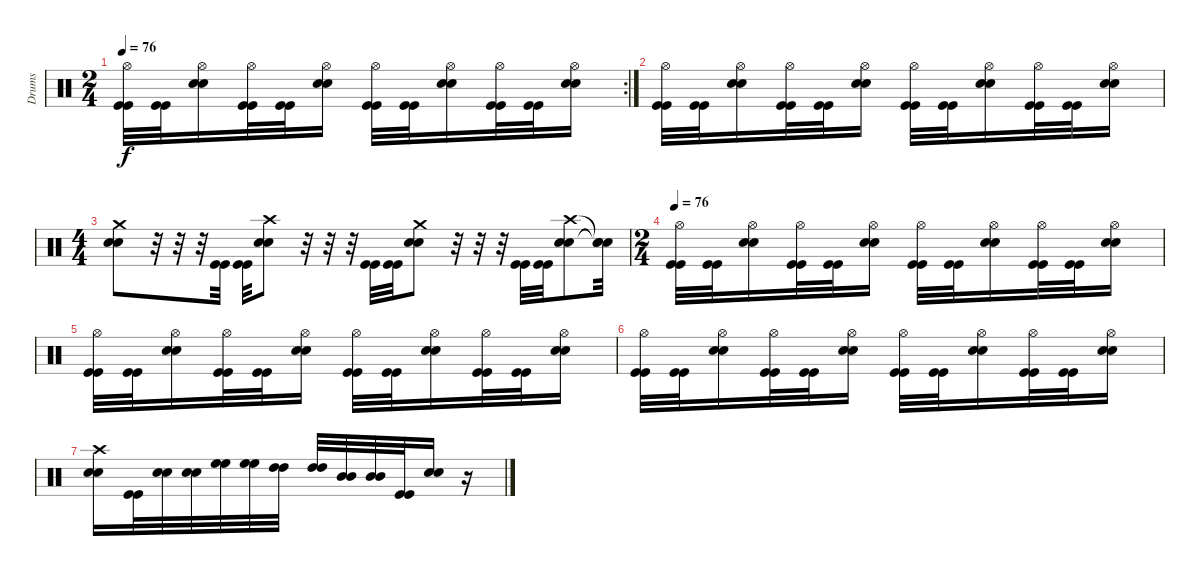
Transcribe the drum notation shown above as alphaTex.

\track ("Drums" "Drums") {instrument percussion}
\staff {score}
\articulation defaults
\rc 2
\ts (2 4)
\tempo 76
\clef neutral
\ks c
("Hi-Hat (open)" "Kick (hit)" "Kick (hit)").32{dy f} ("Kick (hit)" "Kick (hit)").32 ("Hi-Hat (open)" "Snare (hit) 2" "Snare (hit) 2").16 ("Hi-Hat (open)" "Kick (hit)" "Kick (hit)").32 ("Kick (hit)" "Kick (hit)").32 ("Hi-Hat (open)" "Snare (hit) 2" "Snare (hit) 2").16 ("Hi-Hat (open)" "Kick (hit)" "Kick (hit)").32 ("Kick (hit)" "Kick (hit)").32 ("Hi-Hat (open)" "Snare (hit) 2" "Snare (hit) 2").16 ("Hi-Hat (open)" "Kick (hit)" "Kick (hit)").32 ("Kick (hit)" "Kick (hit)").32 ("Hi-Hat (open)" "Snare (hit) 2" "Snare (hit) 2").16 |
("Hi-Hat (open)" "Kick (hit)" "Kick (hit)").32 ("Kick (hit)" "Kick (hit)").32 ("Hi-Hat (open)" "Snare (hit) 2" "Snare (hit) 2").16 ("Hi-Hat (open)" "Kick (hit)" "Kick (hit)").32 ("Kick (hit)" "Kick (hit)").32 ("Hi-Hat (open)" "Snare (hit) 2" "Snare (hit) 2").16 ("Hi-Hat (open)" "Kick (hit)" "Kick (hit)").32 ("Kick (hit)" "Kick (hit)").32 ("Hi-Hat (open)" "Snare (hit) 2" "Snare (hit) 2").16 ("Hi-Hat (open)" "Kick (hit)" "Kick (hit)").32 ("Kick (hit)" "Kick (hit)").32 ("Hi-Hat (open)" "Snare (hit) 2" "Snare (hit) 2").16 |
\ts (4 4)
("Crash medium (hit)" "Snare (hit) 2" "Snare (hit) 2").8 r.32 r.32 r.32 ("Kick (hit)" "Kick (hit)").32 ("Kick (hit)" "Kick (hit)").32 ("Crash high (hit)" "Snare (hit) 2" "Snare (hit) 2").8 r.32 r.32 r.32 ("Kick (hit)" "Kick (hit)").32 ("Kick (hit)" "Kick (hit)").32 ("Crash medium (hit)" "Snare (hit) 2" "Snare (hit) 2").8 r.32 r.32 r.32 ("Kick (hit)" "Kick (hit)").32 ("Kick (hit)" "Kick (hit)").32 ("Crash high (hit)" "Snare (hit) 2" "Snare (hit) 2").8 ("Snare (hit)"{t} "Snare (hit)"{t} "Snare (hit)"{t}).32 |
\ts (2 4)
\tempo 76
("Hi-Hat (open)" "Kick (hit)" "Kick (hit)").32 ("Kick (hit)" "Kick (hit)").32 ("Hi-Hat (open)" "Snare (hit) 2" "Snare (hit) 2").16 ("Hi-Hat (open)" "Kick (hit)" "Kick (hit)").32 ("Kick (hit)" "Kick (hit)").32 ("Hi-Hat (open)" "Snare (hit) 2" "Snare (hit) 2").16 ("Hi-Hat (open)" "Kick (hit)" "Kick (hit)").32 ("Kick (hit)" "Kick (hit)").32 ("Hi-Hat (open)" "Snare (hit) 2" "Snare (hit) 2").16 ("Hi-Hat (open)" "Kick (hit)" "Kick (hit)").32 ("Kick (hit)" "Kick (hit)").32 ("Hi-Hat (open)" "Snare (hit) 2" "Snare (hit) 2").16 |
("Hi-Hat (open)" "Kick (hit)" "Kick (hit)").32 ("Kick (hit)" "Kick (hit)").32 ("Hi-Hat (open)" "Snare (hit) 2" "Snare (hit) 2").16 ("Hi-Hat (open)" "Kick (hit)" "Kick (hit)").32 ("Kick (hit)" "Kick (hit)").32 ("Hi-Hat (open)" "Snare (hit) 2" "Snare (hit) 2").16 ("Hi-Hat (open)" "Kick (hit)" "Kick (hit)").32 ("Kick (hit)" "Kick (hit)").32 ("Hi-Hat (open)" "Snare (hit) 2" "Snare (hit) 2").16 ("Hi-Hat (open)" "Kick (hit)" "Kick (hit)").32 ("Kick (hit)" "Kick (hit)").32 ("Hi-Hat (open)" "Snare (hit) 2" "Snare (hit) 2").16 |
("Hi-Hat (open)" "Kick (hit)" "Kick (hit)").32 ("Kick (hit)" "Kick (hit)").32 ("Hi-Hat (open)" "Snare (hit) 2" "Snare (hit) 2").16 ("Hi-Hat (open)" "Kick (hit)" "Kick (hit)").32 ("Kick (hit)" "Kick (hit)").32 ("Hi-Hat (open)" "Snare (hit) 2" "Snare (hit) 2").16 ("Hi-Hat (open)" "Kick (hit)" "Kick (hit)").32 ("Kick (hit)" "Kick (hit)").32 ("Hi-Hat (open)" "Snare (hit) 2" "Snare (hit) 2").16 ("Hi-Hat (open)" "Kick (hit)" "Kick (hit)").32 ("Kick (hit)" "Kick (hit)").32 ("Hi-Hat (open)" "Snare (hit) 2" "Snare (hit) 2").16 |
("Crash high (hit)" "Snare (hit) 2" "Snare (hit) 2").16 ("Kick (hit)" "Kick (hit)").32 ("Snare (hit) 2" "Snare (hit) 2").32 ("Snare (hit) 2" "Snare (hit) 2").32 ("High Floor Tom (hit)" "High Floor Tom (hit)").32 ("High Floor Tom (hit)" "High Floor Tom (hit)").32 ("High Tom (hit)" "High Tom (hit)").32 ("High Tom (hit)" "High Tom (hit)").32 ("Mid Tom (hit)" "Mid Tom (hit)").32 ("Mid Tom (hit)" "Mid Tom (hit)").32 ("Kick (hit)" "Kick (hit)").32 ("Snare (hit) 2" "Snare (hit) 2").16 r.16
